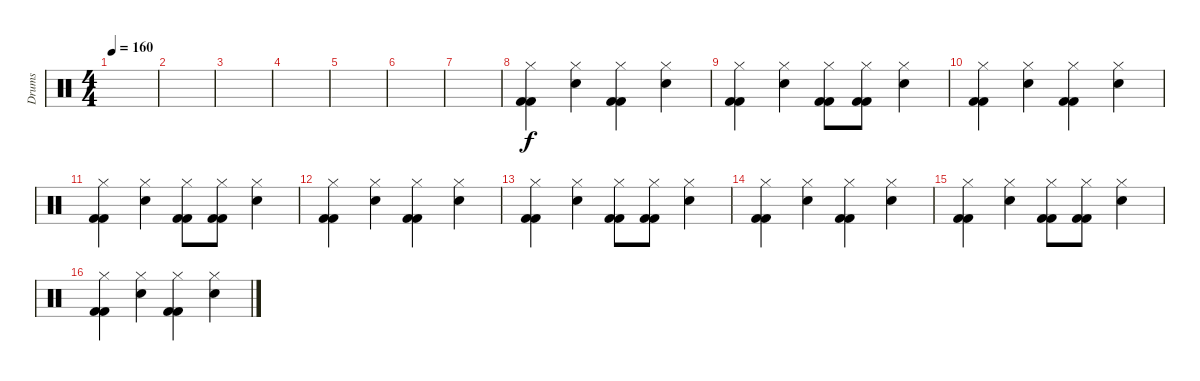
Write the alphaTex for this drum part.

\track ("Drums" "Drums") {instrument percussion}
\staff {score}
\articulation defaults
\ts (4 4)
\tempo 160
\clef neutral
\ks c
|
|
|
|
|
|
|
("Hi-Hat (closed)" "Kick (hit) 2" "Kick (hit) 2").4 ("Hi-Hat (closed)" "Snare (hit) 2").4 ("Hi-Hat (closed)" "Kick (hit) 2" "Kick (hit) 2").4 ("Hi-Hat (closed)" "Snare (hit) 2").4 |
("Hi-Hat (closed)" "Kick (hit) 2" "Kick (hit) 2").4 ("Hi-Hat (closed)" "Snare (hit) 2").4 ("Hi-Hat (closed)" "Kick (hit) 2" "Kick (hit) 2").8 ("Hi-Hat (closed)" "Kick (hit) 2" "Kick (hit) 2").8 ("Hi-Hat (closed)" "Snare (hit) 2").4 |
("Hi-Hat (closed)" "Kick (hit) 2" "Kick (hit) 2").4 ("Hi-Hat (closed)" "Snare (hit) 2").4 ("Hi-Hat (closed)" "Kick (hit) 2" "Kick (hit) 2").4 ("Hi-Hat (closed)" "Snare (hit) 2").4 |
("Hi-Hat (closed)" "Kick (hit) 2" "Kick (hit) 2").4 ("Hi-Hat (closed)" "Snare (hit) 2").4 ("Hi-Hat (closed)" "Kick (hit) 2" "Kick (hit) 2").8 ("Hi-Hat (closed)" "Kick (hit) 2" "Kick (hit) 2").8 ("Hi-Hat (closed)" "Snare (hit) 2").4 |
("Hi-Hat (closed)" "Kick (hit) 2" "Kick (hit) 2").4 ("Hi-Hat (closed)" "Snare (hit) 2").4 ("Hi-Hat (closed)" "Kick (hit) 2" "Kick (hit) 2").4 ("Hi-Hat (closed)" "Snare (hit) 2").4 |
("Hi-Hat (closed)" "Kick (hit) 2" "Kick (hit) 2").4 ("Hi-Hat (closed)" "Snare (hit) 2").4 ("Hi-Hat (closed)" "Kick (hit) 2" "Kick (hit) 2").8 ("Hi-Hat (closed)" "Kick (hit) 2" "Kick (hit) 2").8 ("Hi-Hat (closed)" "Snare (hit) 2").4 |
("Hi-Hat (closed)" "Kick (hit) 2" "Kick (hit) 2").4 ("Hi-Hat (closed)" "Snare (hit) 2").4 ("Hi-Hat (closed)" "Kick (hit) 2" "Kick (hit) 2").4 ("Hi-Hat (closed)" "Snare (hit) 2").4 |
("Hi-Hat (closed)" "Kick (hit) 2" "Kick (hit) 2").4 ("Hi-Hat (closed)" "Snare (hit) 2").4 ("Hi-Hat (closed)" "Kick (hit) 2" "Kick (hit) 2").8 ("Hi-Hat (closed)" "Kick (hit) 2" "Kick (hit) 2").8 ("Hi-Hat (closed)" "Snare (hit) 2").4 |
("Hi-Hat (closed)" "Kick (hit) 2" "Kick (hit) 2").4 ("Hi-Hat (closed)" "Snare (hit) 2").4 ("Hi-Hat (closed)" "Kick (hit) 2" "Kick (hit) 2").4 ("Hi-Hat (closed)" "Snare (hit) 2").4
